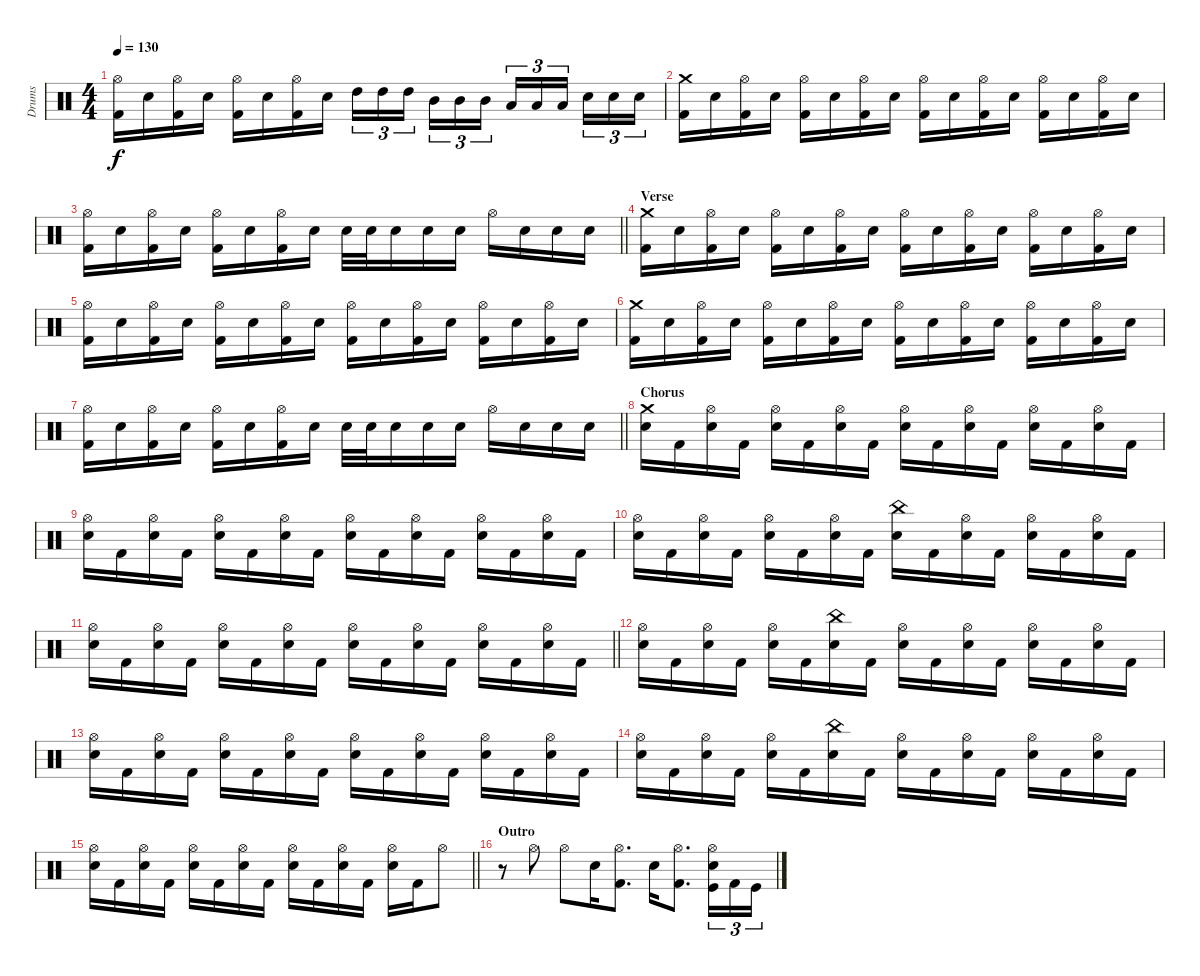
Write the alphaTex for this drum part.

\track ("Drums" "Drums") {instrument percussion}
\staff {score}
\articulation defaults
\ts (4 4)
\tempo 130
\clef neutral
\ks c
("Hi-Hat (open)" "Kick (hit) 2").16{dy f} "Electric Snare (hit)".16 ("Hi-Hat (open)" "Kick (hit) 2").16 "Electric Snare (hit)".16 ("Hi-Hat (open)" "Kick (hit) 2").16 "Electric Snare (hit)".16 ("Hi-Hat (open)" "Kick (hit) 2").16 "Electric Snare (hit)".16 "High Tom (hit)".16{tu (3 2)} "High Tom (hit)".16{tu (3 2)} "High Tom (hit)".16{tu (3 2) beam splitsecondary} "Mid Tom (hit)".16{tu (3 2)} "Mid Tom (hit)".16{tu (3 2)} "Mid Tom (hit)".16{tu (3 2)} "Low Tom (hit)".16{tu (3 2)} "Low Tom (hit)".16{tu (3 2)} "Low Tom (hit)".16{tu (3 2) beam splitsecondary} "Electric Snare (hit)".16{tu (3 2)} "Electric Snare (hit)".16{tu (3 2)} "Electric Snare (hit)".16{tu (3 2)} |
("Crash medium (hit)" "Kick (hit) 2").16 "Electric Snare (hit)".16 ("Hi-Hat (open)" "Kick (hit) 2").16 "Electric Snare (hit)".16 ("Hi-Hat (open)" "Kick (hit) 2").16 "Electric Snare (hit)".16 ("Hi-Hat (open)" "Kick (hit) 2").16 "Electric Snare (hit)".16 ("Hi-Hat (open)" "Kick (hit) 2").16 "Electric Snare (hit)".16 ("Hi-Hat (open)" "Kick (hit) 2").16 "Electric Snare (hit)".16 ("Hi-Hat (open)" "Kick (hit) 2").16 "Electric Snare (hit)".16 ("Hi-Hat (open)" "Kick (hit) 2").16 "Electric Snare (hit)".16 |
\barLineRight lightlight
("Hi-Hat (open)" "Kick (hit) 2").16 "Electric Snare (hit)".16 ("Hi-Hat (open)" "Kick (hit) 2").16 "Electric Snare (hit)".16 ("Hi-Hat (open)" "Kick (hit) 2").16 "Electric Snare (hit)".16 ("Hi-Hat (open)" "Kick (hit) 2").16 "Electric Snare (hit)".16 "Electric Snare (hit)".32 "Electric Snare (hit)".32 "Electric Snare (hit)".16 "Electric Snare (hit)".16 "Electric Snare (hit)".16 "Hi-Hat (open)".16 "Electric Snare (hit)".16 "Electric Snare (hit)".16 "Electric Snare (hit)".16 |
\section ("" "Verse")
("Crash medium (hit)" "Kick (hit) 2").16 "Electric Snare (hit)".16 ("Hi-Hat (open)" "Kick (hit) 2").16 "Electric Snare (hit)".16 ("Hi-Hat (open)" "Kick (hit) 2").16 "Electric Snare (hit)".16 ("Hi-Hat (open)" "Kick (hit) 2").16 "Electric Snare (hit)".16 ("Hi-Hat (open)" "Kick (hit) 2").16 "Electric Snare (hit)".16 ("Hi-Hat (open)" "Kick (hit) 2").16 "Electric Snare (hit)".16 ("Hi-Hat (open)" "Kick (hit) 2").16 "Electric Snare (hit)".16 ("Hi-Hat (open)" "Kick (hit) 2").16 "Electric Snare (hit)".16 |
("Hi-Hat (open)" "Kick (hit) 2").16 "Electric Snare (hit)".16 ("Hi-Hat (open)" "Kick (hit) 2").16 "Electric Snare (hit)".16 ("Hi-Hat (open)" "Kick (hit) 2").16 "Electric Snare (hit)".16 ("Hi-Hat (open)" "Kick (hit) 2").16 "Electric Snare (hit)".16 ("Hi-Hat (open)" "Kick (hit) 2").16 "Electric Snare (hit)".16 ("Hi-Hat (open)" "Kick (hit) 2").16 "Electric Snare (hit)".16 ("Hi-Hat (open)" "Kick (hit) 2").16 "Electric Snare (hit)".16 ("Hi-Hat (open)" "Kick (hit) 2").16 "Electric Snare (hit)".16 |
("Crash medium (hit)" "Kick (hit) 2").16 "Electric Snare (hit)".16 ("Hi-Hat (open)" "Kick (hit) 2").16 "Electric Snare (hit)".16 ("Hi-Hat (open)" "Kick (hit) 2").16 "Electric Snare (hit)".16 ("Hi-Hat (open)" "Kick (hit) 2").16 "Electric Snare (hit)".16 ("Hi-Hat (open)" "Kick (hit) 2").16 "Electric Snare (hit)".16 ("Hi-Hat (open)" "Kick (hit) 2").16 "Electric Snare (hit)".16 ("Hi-Hat (open)" "Kick (hit) 2").16 "Electric Snare (hit)".16 ("Hi-Hat (open)" "Kick (hit) 2").16 "Electric Snare (hit)".16 |
\barLineRight lightlight
("Hi-Hat (open)" "Kick (hit) 2").16 "Electric Snare (hit)".16 ("Hi-Hat (open)" "Kick (hit) 2").16 "Electric Snare (hit)".16 ("Hi-Hat (open)" "Kick (hit) 2").16 "Electric Snare (hit)".16 ("Hi-Hat (open)" "Kick (hit) 2").16 "Electric Snare (hit)".16 "Electric Snare (hit)".32 "Electric Snare (hit)".32 "Electric Snare (hit)".16 "Electric Snare (hit)".16 "Electric Snare (hit)".16 "Hi-Hat (open)".16 "Electric Snare (hit)".16 "Electric Snare (hit)".16 "Electric Snare (hit)".16 |
\section ("" "Chorus")
("Crash medium (hit)" "Electric Snare (hit)").16 "Kick (hit) 2".16 ("Hi-Hat (open)" "Electric Snare (hit)").16 "Kick (hit) 2".16 ("Hi-Hat (open)" "Electric Snare (hit)").16 "Kick (hit) 2".16 ("Hi-Hat (open)" "Electric Snare (hit)").16 "Kick (hit) 2".16 ("Hi-Hat (open)" "Electric Snare (hit)").16 "Kick (hit) 2".16 ("Hi-Hat (open)" "Electric Snare (hit)").16 "Kick (hit) 2".16 ("Hi-Hat (open)" "Electric Snare (hit)").16 "Kick (hit) 2".16 ("Hi-Hat (open)" "Electric Snare (hit)").16 "Kick (hit) 2".16 |
("Hi-Hat (open)" "Electric Snare (hit)").16 "Kick (hit) 2".16 ("Hi-Hat (open)" "Electric Snare (hit)").16 "Kick (hit) 2".16 ("Hi-Hat (open)" "Electric Snare (hit)").16 "Kick (hit) 2".16 ("Hi-Hat (open)" "Electric Snare (hit)").16 "Kick (hit) 2".16 ("Hi-Hat (open)" "Electric Snare (hit)").16 "Kick (hit) 2".16 ("Hi-Hat (open)" "Electric Snare (hit)").16 "Kick (hit) 2".16 ("Hi-Hat (open)" "Electric Snare (hit)").16 "Kick (hit) 2".16 ("Hi-Hat (open)" "Electric Snare (hit)").16 "Kick (hit) 2".16 |
("Hi-Hat (open)" "Electric Snare (hit)").16 "Kick (hit) 2".16 ("Hi-Hat (open)" "Electric Snare (hit)").16 "Kick (hit) 2".16 ("Hi-Hat (open)" "Electric Snare (hit)").16 "Kick (hit) 2".16 ("Hi-Hat (open)" "Electric Snare (hit)").16 "Kick (hit) 2".16 ("China (hit)" "Electric Snare (hit)").16 "Kick (hit) 2".16 ("Hi-Hat (open)" "Electric Snare (hit)").16 "Kick (hit) 2".16 ("Hi-Hat (open)" "Electric Snare (hit)").16 "Kick (hit) 2".16 ("Hi-Hat (open)" "Electric Snare (hit)").16 "Kick (hit) 2".16 |
\barLineRight lightlight
("Hi-Hat (open)" "Electric Snare (hit)").16 "Kick (hit) 2".16 ("Hi-Hat (open)" "Electric Snare (hit)").16 "Kick (hit) 2".16 ("Hi-Hat (open)" "Electric Snare (hit)").16 "Kick (hit) 2".16 ("Hi-Hat (open)" "Electric Snare (hit)").16 "Kick (hit) 2".16 ("Hi-Hat (open)" "Electric Snare (hit)").16 "Kick (hit) 2".16 ("Hi-Hat (open)" "Electric Snare (hit)").16 "Kick (hit) 2".16 ("Hi-Hat (open)" "Electric Snare (hit)").16 "Kick (hit) 2".16 ("Hi-Hat (open)" "Electric Snare (hit)").16 "Kick (hit) 2".16 |
("Hi-Hat (open)" "Electric Snare (hit)").16 "Kick (hit) 2".16 ("Hi-Hat (open)" "Electric Snare (hit)").16 "Kick (hit) 2".16 ("Hi-Hat (open)" "Electric Snare (hit)").16 "Kick (hit) 2".16 ("China (hit)" "Electric Snare (hit)").16 "Kick (hit) 2".16 ("Hi-Hat (open)" "Electric Snare (hit)").16 "Kick (hit) 2".16 ("Hi-Hat (open)" "Electric Snare (hit)").16 "Kick (hit) 2".16 ("Hi-Hat (open)" "Electric Snare (hit)").16 "Kick (hit) 2".16 ("Hi-Hat (open)" "Electric Snare (hit)").16 "Kick (hit) 2".16 |
("Hi-Hat (open)" "Electric Snare (hit)").16 "Kick (hit) 2".16 ("Hi-Hat (open)" "Electric Snare (hit)").16 "Kick (hit) 2".16 ("Hi-Hat (open)" "Electric Snare (hit)").16 "Kick (hit) 2".16 ("Hi-Hat (open)" "Electric Snare (hit)").16 "Kick (hit) 2".16 ("Hi-Hat (open)" "Electric Snare (hit)").16 "Kick (hit) 2".16 ("Hi-Hat (open)" "Electric Snare (hit)").16 "Kick (hit) 2".16 ("Hi-Hat (open)" "Electric Snare (hit)").16 "Kick (hit) 2".16 ("Hi-Hat (open)" "Electric Snare (hit)").16 "Kick (hit) 2".16 |
("Hi-Hat (open)" "Electric Snare (hit)").16 "Kick (hit) 2".16 ("Hi-Hat (open)" "Electric Snare (hit)").16 "Kick (hit) 2".16 ("Hi-Hat (open)" "Electric Snare (hit)").16 "Kick (hit) 2".16 ("China (hit)" "Electric Snare (hit)").16 "Kick (hit) 2".16 ("Hi-Hat (open)" "Electric Snare (hit)").16 "Kick (hit) 2".16 ("Hi-Hat (open)" "Electric Snare (hit)").16 "Kick (hit) 2".16 ("Hi-Hat (open)" "Electric Snare (hit)").16 "Kick (hit) 2".16 ("Hi-Hat (open)" "Electric Snare (hit)").16 "Kick (hit) 2".16 |
\barLineRight lightlight
("Hi-Hat (open)" "Electric Snare (hit)").16 "Kick (hit) 2".16 ("Hi-Hat (open)" "Electric Snare (hit)").16 "Kick (hit) 2".16 ("Hi-Hat (open)" "Electric Snare (hit)").16 "Kick (hit) 2".16 ("Hi-Hat (open)" "Electric Snare (hit)").16 "Kick (hit) 2".16 ("Hi-Hat (open)" "Electric Snare (hit)").16 "Kick (hit) 2".16 ("Hi-Hat (open)" "Electric Snare (hit)").16 "Kick (hit) 2".16 ("Hi-Hat (open)" "Electric Snare (hit)").16 "Kick (hit) 2".16 "Hi-Hat (open)".8 |
\section ("" "Outro")
r.8 "Hi-Hat (open)".8 "Hi-Hat (open)".8 "Electric Snare (hit)".16 ("Hi-Hat (open)" "Kick (hit) 2").8{d} "Electric Snare (hit)".16 ("Hi-Hat (open)" "Kick (hit) 2").8{d} ("Hi-Hat (open)" "Electric Snare (hit)" "Kick (hit)").16{tu (3 2)} "Kick (hit) 2".16{tu (3 2)} "Kick (hit)".16{tu (3 2)}
